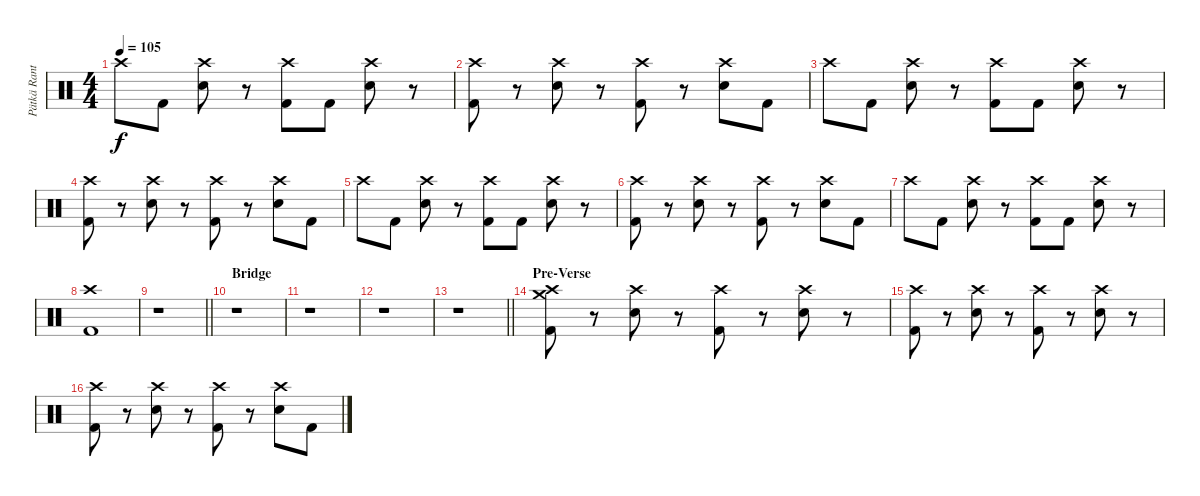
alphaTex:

\track ("Pätkä Rantala (Drums)" "Pätkä Rant") {instrument percussion}
\staff {score}
\articulation defaults
\ts (4 4)
\tempo 105
\clef neutral
\ks c "Crash high (hit)".8{dy f} "Kick (hit) 2".8
("Crash high (hit)" "Snare (hit) 2").8 r.8 ("Crash high (hit)" "Kick (hit) 2").8 "Kick (hit) 2".8 ("Crash high (hit)" "Snare (hit) 2").8 r.8 |
("Crash high (hit)" "Kick (hit) 2").8 r.8 ("Crash high (hit)" "Snare (hit) 2").8 r.8 ("Crash high (hit)" "Kick (hit) 2").8 r.8 ("Crash high (hit)" "Snare (hit) 2").8 "Kick (hit) 2".8 |
"Crash high (hit)".8 "Kick (hit) 2".8 ("Crash high (hit)" "Snare (hit) 2").8 r.8 ("Crash high (hit)" "Kick (hit) 2").8 "Kick (hit) 2".8 ("Crash high (hit)" "Snare (hit) 2").8 r.8 |
("Crash high (hit)" "Kick (hit) 2").8 r.8 ("Crash high (hit)" "Snare (hit) 2").8 r.8 ("Crash high (hit)" "Kick (hit) 2").8 r.8 ("Crash high (hit)" "Snare (hit) 2").8 "Kick (hit) 2".8 |
"Crash high (hit)".8 "Kick (hit) 2".8 ("Crash high (hit)" "Snare (hit) 2").8 r.8 ("Crash high (hit)" "Kick (hit) 2").8 "Kick (hit) 2".8 ("Crash high (hit)" "Snare (hit) 2").8 r.8 |
("Crash high (hit)" "Kick (hit) 2").8 r.8 ("Crash high (hit)" "Snare (hit) 2").8 r.8 ("Crash high (hit)" "Kick (hit) 2").8 r.8 ("Crash high (hit)" "Snare (hit) 2").8 "Kick (hit) 2".8 |
"Crash high (hit)".8 "Kick (hit) 2".8 ("Crash high (hit)" "Snare (hit) 2").8 r.8 ("Crash high (hit)" "Kick (hit) 2").8 "Kick (hit) 2".8 ("Crash high (hit)" "Snare (hit) 2").8 r.8 |
("Crash high (hit)" "Kick (hit) 2").1 |
\barLineRight lightlight
r.1 |
\section ("" "Bridge")
r.1 |
r.1 |
r.1 |
\barLineRight lightlight
r.1 |
\section ("" "Pre-Verse")
("Crash medium (hit)" "Crash high (hit)" "Kick (hit) 2").8 r.8 ("Crash high (hit)" "Snare (hit) 2").8 r.8 ("Crash high (hit)" "Kick (hit) 2").8 r.8 ("Crash high (hit)" "Snare (hit) 2").8 r.8 |
("Crash high (hit)" "Kick (hit) 2").8 r.8 ("Crash high (hit)" "Snare (hit) 2").8 r.8 ("Crash high (hit)" "Kick (hit) 2").8 r.8 ("Crash high (hit)" "Snare (hit) 2").8 r.8 |
("Crash high (hit)" "Kick (hit) 2").8 r.8 ("Crash high (hit)" "Snare (hit) 2").8 r.8 ("Crash high (hit)" "Kick (hit) 2").8 r.8 ("Crash high (hit)" "Snare (hit) 2").8 "Kick (hit) 2".8
